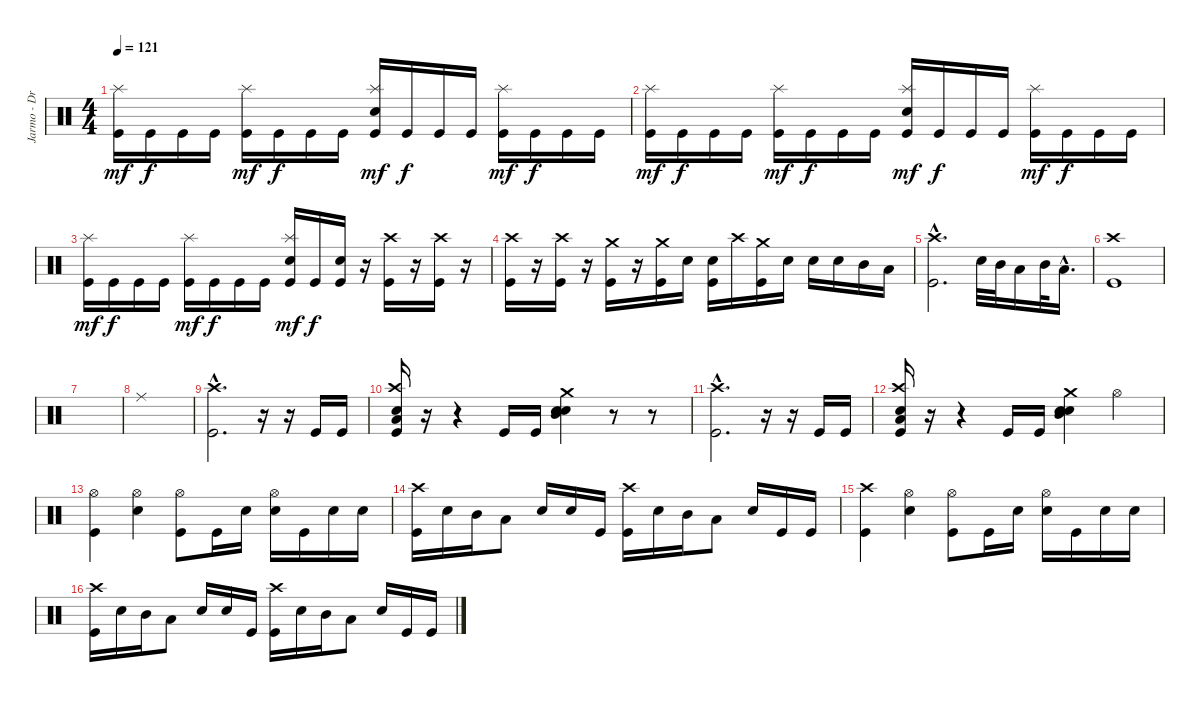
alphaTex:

\track ("Jarmo - Drums" "Jarmo - Dr") {instrument percussion}
\staff {score}
\articulation defaults
\ts (4 4)
\tempo 121
\clef neutral
\ks c
("Kick (hit)" "Splash (hit)").16{dy mf} "Kick (hit)".16{dy f} "Kick (hit)".16 "Kick (hit)".16 ("Kick (hit)" "Splash (hit)").16{dy mf} "Kick (hit)".16{dy f} "Kick (hit)".16 "Kick (hit)".16 ("Kick (hit)" "Electric Snare (hit)" "Splash (hit)").16{dy mf} "Kick (hit)".16{dy f} "Kick (hit)".16 "Kick (hit)".16 ("Kick (hit)" "Splash (hit)").16{dy mf} "Kick (hit)".16{dy f} "Kick (hit)".16 "Kick (hit)".16 |
("Kick (hit)" "Splash (hit)").16{dy mf} "Kick (hit)".16{dy f} "Kick (hit)".16 "Kick (hit)".16 ("Kick (hit)" "Splash (hit)").16{dy mf} "Kick (hit)".16{dy f} "Kick (hit)".16 "Kick (hit)".16 ("Kick (hit)" "Electric Snare (hit)" "Splash (hit)").16{dy mf} "Kick (hit)".16{dy f} "Kick (hit)".16 "Kick (hit)".16 ("Kick (hit)" "Splash (hit)").16{dy mf} "Kick (hit)".16{dy f} "Kick (hit)".16 "Kick (hit)".16 |
("Kick (hit)" "Splash (hit)").16{dy mf} "Kick (hit)".16{dy f} "Kick (hit)".16 "Kick (hit)".16 ("Kick (hit)" "Splash (hit)").16{dy mf} "Kick (hit)".16{dy f} "Kick (hit)".16 "Kick (hit)".16 ("Kick (hit)" "Electric Snare (hit)" "Splash (hit)").16{dy mf} "Kick (hit)".16{dy f} ("Kick (hit)" "Electric Snare (hit)").16 r.16 ("Kick (hit)" "Crash high (hit)").16 r.16 ("Kick (hit)" "Crash high (hit)").16 r.16 |
("Kick (hit)" "Crash high (hit)").16 r.16 ("Kick (hit)" "Crash high (hit)").16 r.16 ("Kick (hit)" "Crash medium (hit)").16 r.16 ("Kick (hit)" "Crash medium (hit)").16 "Electric Snare (hit)".16 ("Kick (hit)" "Electric Snare (hit)").16 "Crash high (hit)".16 ("Kick (hit)" "Crash medium (hit)").16 "Electric Snare (hit)".16 "Electric Snare (hit)".16 "Electric Snare (hit)".16 "Mid Tom (hit)".16 "Low Tom (hit)".16 |
("Kick (hit)"{hac} "Crash high (hit)"{hac}).2{d} "Electric Snare (hit)".32 "Mid Tom (hit)".32 "Low Tom (hit)".16 "Mid Tom (hit)".32 "Low Tom (hit)"{hac}.16{d} |
("Kick (hit)" "Crash high (hit)").1 |
|
"Ride (middle)".1 |
("Kick (hit)"{hac} "Crash high (hit)"{hac}).2{d} r.16 r.16 "Kick (hit)".16 "Kick (hit)".16 |
("Kick (hit)" "Snare (hit) 2" "Low Tom (hit)" "Crash high (hit)").16 r.16 r.4 "Kick (hit)".16 "Kick (hit)".16 ("Electric Snare (hit)" "Snare (hit) 2" "Mid Tom (hit)" "Crash medium (hit)").4 r.8 r.8 |
("Kick (hit)"{hac} "Crash high (hit)"{hac}).2{d} r.16 r.16 "Kick (hit)".16 "Kick (hit)".16 |
("Kick (hit)" "Snare (hit) 2" "Low Tom (hit)" "Crash high (hit)").16 r.16 r.4 "Kick (hit)".16 "Kick (hit)".16 ("Electric Snare (hit)" "Snare (hit) 2" "Mid Tom (hit)" "Crash medium (hit)").4 "Hi-Hat (open)".4 |
("Kick (hit)" "Hi-Hat (open)").4 ("Electric Snare (hit)" "Hi-Hat (open)").4 ("Kick (hit)" "Hi-Hat (open)").8 "Kick (hit)".16 "Electric Snare (hit)".16 ("Electric Snare (hit)" "Hi-Hat (open)").16 "Kick (hit)".16 "Electric Snare (hit)".16 "Electric Snare (hit)".16 |
("Kick (hit)" "Crash high (hit)").16 "Electric Snare (hit)".16 "Mid Tom (hit)".16 "Low Tom (hit)".8 "Electric Snare (hit)".16 "Electric Snare (hit)".16 "Kick (hit)".16 ("Kick (hit)" "Crash high (hit)").16 "Electric Snare (hit)".16 "Mid Tom (hit)".16 "Low Tom (hit)".8 "Electric Snare (hit)".16 "Kick (hit)".16 "Kick (hit)".16 |
("Kick (hit)" "Crash high (hit)").4 ("Electric Snare (hit)" "Hi-Hat (open)").4 ("Kick (hit)" "Hi-Hat (open)").8 "Kick (hit)".16 "Electric Snare (hit)".16 ("Electric Snare (hit)" "Hi-Hat (open)").16 "Kick (hit)".16 "Electric Snare (hit)".16 "Electric Snare (hit)".16 |
("Kick (hit)" "Crash high (hit)").16 "Electric Snare (hit)".16 "Mid Tom (hit)".16 "Low Tom (hit)".8 "Electric Snare (hit)".16 "Electric Snare (hit)".16 "Kick (hit)".16 ("Kick (hit)" "Crash high (hit)").16 "Electric Snare (hit)".16 "Mid Tom (hit)".16 "Low Tom (hit)".8 "Electric Snare (hit)".16 "Kick (hit)".16 "Kick (hit)".16
